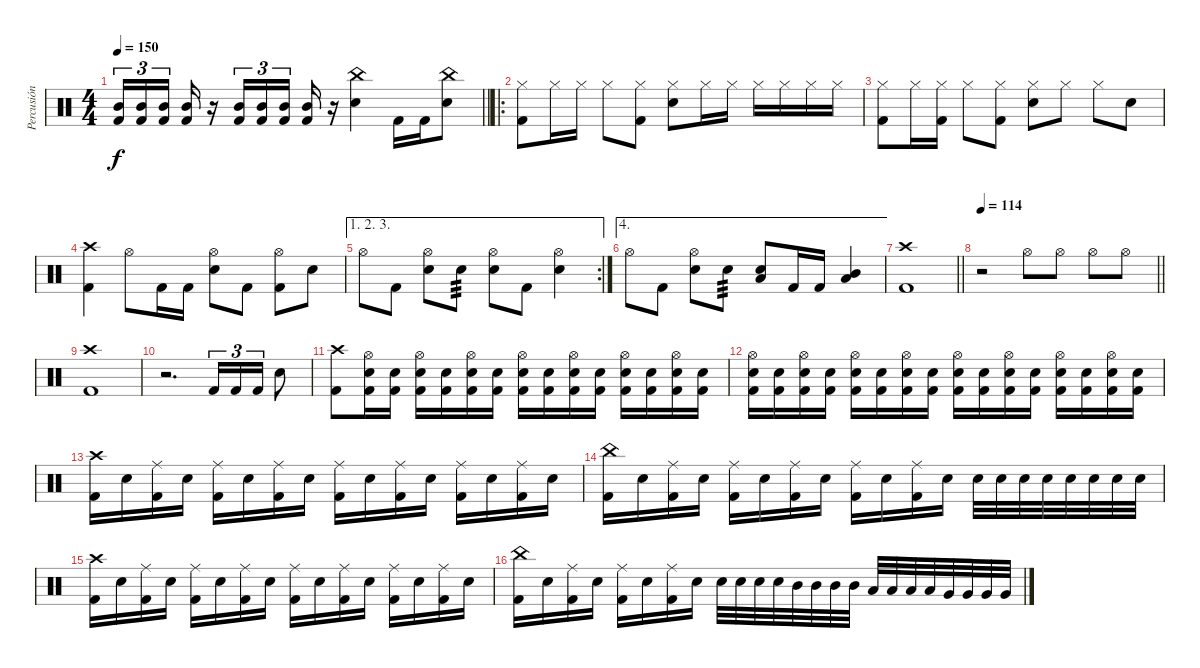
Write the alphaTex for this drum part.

\track ("Percusión" "Percusión") {instrument percussion}
\staff
\articulation defaults
\ts (4 4)
\tempo 150
\clef neutral
\barLineRight lightlight
\ks c
("Kick (hit) 2" "Mid Tom (hit)").16{tu (3 2) dy f} ("Kick (hit) 2" "Mid Tom (hit)").16{tu (3 2)} ("Kick (hit) 2" "Mid Tom (hit)").16{tu (3 2) beam splitsecondary} ("Kick (hit) 2" "Mid Tom (hit)").16 r.16 ("Kick (hit) 2" "Mid Tom (hit)").16{tu (3 2)} ("Kick (hit) 2" "Mid Tom (hit)").16{tu (3 2)} ("Kick (hit) 2" "Mid Tom (hit)").16{tu (3 2) beam splitsecondary} ("Kick (hit) 2" "Mid Tom (hit)").16 r.16 ("China (hit)" "Electric Snare (hit)").4 "Kick (hit) 2".16 "Kick (hit) 2".16 ("China (hit)" "Electric Snare (hit)").8 |
\ro
\section ("" "")
("Kick (hit) 2" "Hi-Hat (closed)").8 "Hi-Hat (closed)".16 "Hi-Hat (closed)".16 "Hi-Hat (closed)".8 ("Kick (hit) 2" "Hi-Hat (closed)").8 ("Hi-Hat (closed)" "Electric Snare (hit)").8 "Hi-Hat (closed)".16 "Hi-Hat (closed)".16 "Hi-Hat (closed)".16 "Hi-Hat (closed)".16 "Hi-Hat (closed)".16 "Hi-Hat (closed)".16 |
("Kick (hit) 2" "Hi-Hat (closed)").8 "Hi-Hat (closed)".16 ("Kick (hit) 2" "Hi-Hat (closed)").16 "Hi-Hat (closed)".8 ("Kick (hit) 2" "Hi-Hat (closed)").8 ("Hi-Hat (closed)" "Electric Snare (hit)").8 "Hi-Hat (closed)".8 "Hi-Hat (closed)".8 "Electric Snare (hit)".8 |
("Kick (hit) 2" "Crash high (hit)").4 "Hi-Hat (open)".8 "Kick (hit) 2".16 "Kick (hit) 2".16 ("Hi-Hat (open)" "Electric Snare (hit)").8 "Kick (hit) 2".8 ("Kick (hit) 2" "Hi-Hat (open)").8 "Electric Snare (hit)".8 |
\ae (1 2 3)
\rc 2 "Hi-Hat (open)".8 "Kick (hit) 2".8
("Hi-Hat (open)" "Electric Snare (hit)").8 "Electric Snare (hit)".8{tp 3} ("Hi-Hat (open)" "Electric Snare (hit)").8 "Kick (hit) 2".8 ("Hi-Hat (open)" "Electric Snare (hit)").4 |
\ae 4 "Hi-Hat (open)".8 "Kick (hit) 2".8
("Hi-Hat (open)" "Electric Snare (hit)").8 "Electric Snare (hit)".8{tp 3} ("Low Floor Tom (hit)" "Electric Snare (hit)").8 "Kick (hit) 2".16 "Kick (hit) 2".16 ("Low Floor Tom (hit)" "Mid Tom (hit)").4 |
\barLineRight lightlight
("Kick (hit) 2" "Crash high (hit)").1 |
\section ("" "")
\tempo 114
\barLineRight lightlight
r.2 "Hi-Hat (open)".8 "Hi-Hat (open)".8 "Hi-Hat (open)".8 "Hi-Hat (open)".8 |
\section ("" "")
("Kick (hit) 2" "Crash high (hit)").1 |
r.2{d} "Kick (hit) 2".16{tu (3 2)} "Kick (hit) 2".16{tu (3 2)} "Kick (hit) 2".16{tu (3 2)} "Electric Snare (hit)".8 |
("Kick (hit) 2" "Crash high (hit)").8 ("Kick (hit) 2" "Hi-Hat (open)" "Electric Snare (hit)").16 ("Kick (hit) 2" "Electric Snare (hit)").16 ("Kick (hit) 2" "Hi-Hat (open)" "Electric Snare (hit)").16 ("Kick (hit) 2" "Electric Snare (hit)").16 ("Kick (hit) 2" "Hi-Hat (open)" "Electric Snare (hit)").16 ("Kick (hit) 2" "Electric Snare (hit)").16 ("Kick (hit) 2" "Hi-Hat (open)" "Electric Snare (hit)").16 ("Kick (hit) 2" "Electric Snare (hit)").16 ("Kick (hit) 2" "Hi-Hat (open)" "Electric Snare (hit)").16 ("Kick (hit) 2" "Electric Snare (hit)").16 ("Kick (hit) 2" "Hi-Hat (open)" "Electric Snare (hit)").16 ("Kick (hit) 2" "Electric Snare (hit)").16 ("Kick (hit) 2" "Hi-Hat (open)" "Electric Snare (hit)").16 ("Kick (hit) 2" "Electric Snare (hit)").16 |
("Kick (hit) 2" "Hi-Hat (open)" "Electric Snare (hit)").16 ("Kick (hit) 2" "Electric Snare (hit)").16 ("Kick (hit) 2" "Hi-Hat (open)" "Electric Snare (hit)").16 ("Kick (hit) 2" "Electric Snare (hit)").16 ("Kick (hit) 2" "Hi-Hat (open)" "Electric Snare (hit)").16 ("Kick (hit) 2" "Electric Snare (hit)").16 ("Kick (hit) 2" "Hi-Hat (open)" "Electric Snare (hit)").16 ("Kick (hit) 2" "Electric Snare (hit)").16 ("Kick (hit) 2" "Hi-Hat (open)" "Electric Snare (hit)").16 ("Kick (hit) 2" "Electric Snare (hit)").16 ("Kick (hit) 2" "Hi-Hat (open)" "Electric Snare (hit)").16 ("Kick (hit) 2" "Electric Snare (hit)").16 ("Kick (hit) 2" "Hi-Hat (open)" "Electric Snare (hit)").16 ("Kick (hit) 2" "Electric Snare (hit)").16 ("Kick (hit) 2" "Hi-Hat (open)" "Electric Snare (hit)").16 ("Kick (hit) 2" "Electric Snare (hit)").16 |
("Kick (hit) 2" "Crash high (hit)").16 "Electric Snare (hit)".16 ("Kick (hit) 2" "Ride (middle)").16 "Electric Snare (hit)".16 ("Kick (hit) 2" "Ride (middle)").16 "Electric Snare (hit)".16 ("Kick (hit) 2" "Ride (middle)").16 "Electric Snare (hit)".16 ("Kick (hit) 2" "Ride (middle)").16 "Electric Snare (hit)".16 ("Kick (hit) 2" "Ride (middle)").16 "Electric Snare (hit)".16 ("Kick (hit) 2" "Ride (middle)").16 "Electric Snare (hit)".16 ("Kick (hit) 2" "Ride (middle)").16 "Electric Snare (hit)".16 |
("Kick (hit) 2" "China (hit)").16 "Electric Snare (hit)".16 ("Kick (hit) 2" "Ride (middle)").16 "Electric Snare (hit)".16 ("Kick (hit) 2" "Ride (middle)").16 "Electric Snare (hit)".16 ("Kick (hit) 2" "Ride (middle)").16 "Electric Snare (hit)".16 ("Kick (hit) 2" "Ride (middle)").16 "Electric Snare (hit)".16 ("Kick (hit) 2" "Ride (middle)").16 "Electric Snare (hit)".16 "Snare (hit) 2".32 "Snare (hit) 2".32 "Snare (hit) 2".32 "Snare (hit) 2".32 "Snare (hit) 2".32 "Snare (hit) 2".32 "Snare (hit) 2".32 "Snare (hit) 2".32 |
("Kick (hit) 2" "Crash high (hit)").16 "Electric Snare (hit)".16 ("Kick (hit) 2" "Ride (middle)").16 "Electric Snare (hit)".16 ("Kick (hit) 2" "Ride (middle)").16 "Electric Snare (hit)".16 ("Kick (hit) 2" "Ride (middle)").16 "Electric Snare (hit)".16 ("Kick (hit) 2" "Ride (middle)").16 "Electric Snare (hit)".16 ("Kick (hit) 2" "Ride (middle)").16 "Electric Snare (hit)".16 ("Kick (hit) 2" "Ride (middle)").16 "Electric Snare (hit)".16 ("Kick (hit) 2" "Ride (middle)").16 "Electric Snare (hit)".16 |
("Kick (hit) 2" "China (hit)").16 "Electric Snare (hit)".16 ("Kick (hit) 2" "Ride (middle)").16 "Electric Snare (hit)".16 ("Kick (hit) 2" "Ride (middle)").16 "Electric Snare (hit)".16 ("Kick (hit) 2" "Ride (middle)").16 "Electric Snare (hit)".16 "Snare (hit) 2".32 "Snare (hit) 2".32 "Snare (hit) 2".32 "Snare (hit) 2".32 "Mid Tom (hit)".32 "Mid Tom (hit)".32 "Mid Tom (hit)".32 "Mid Tom (hit)".32 "Low Tom (hit)".32 "Low Tom (hit)".32 "Low Tom (hit)".32 "Low Tom (hit)".32 "Very Low Tom (hit)".32 "Very Low Tom (hit)".32 "Very Low Tom (hit)".32 "Very Low Tom (hit)".32
